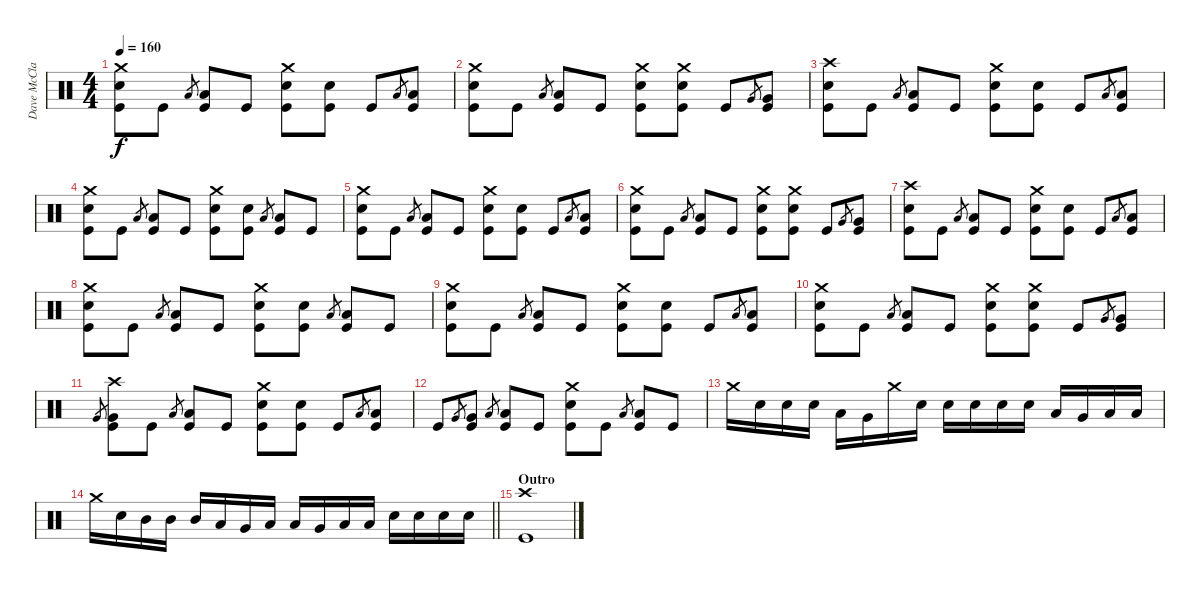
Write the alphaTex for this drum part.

\track ("Dave McClain" "Dave McCla") {instrument percussion}
\staff {score}
\articulation defaults
\ts (4 4)
\tempo 160
\clef neutral
\ks c
("Crash medium (hit)" "Electric Snare (hit)" "Kick (hit)").8{dy f} "Kick (hit)".8 "Low Floor Tom (hit)".8{gr} ("Low Floor Tom (hit)" "Kick (hit)").8 "Kick (hit)".8 ("Crash medium (hit)" "Electric Snare (hit)" "Kick (hit)").8 ("Electric Snare (hit)" "Kick (hit)").8 "Kick (hit)".8 "Low Tom (hit)".8{gr} ("Low Tom (hit)" "Kick (hit)").8 |
("Crash medium (hit)" "Electric Snare (hit)" "Kick (hit)").8 "Kick (hit)".8 "Low Floor Tom (hit)".8{gr} ("Low Floor Tom (hit)" "Kick (hit)").8 "Kick (hit)".8 ("Crash medium (hit)" "Electric Snare (hit)" "Kick (hit)").8 ("Crash medium (hit)" "Electric Snare (hit)" "Kick (hit)").8 "Kick (hit)".8 "Very Low Tom (hit)".8{gr} ("Very Low Tom (hit)" "Kick (hit)").8 |
("Crash high (hit)" "Electric Snare (hit)" "Kick (hit)").8 "Kick (hit)".8 "Low Floor Tom (hit)".8{gr} ("Low Floor Tom (hit)" "Kick (hit)").8 "Kick (hit)".8 ("Crash medium (hit)" "Electric Snare (hit)" "Kick (hit)").8 ("Electric Snare (hit)" "Kick (hit)").8 "Kick (hit)".8 "Low Tom (hit)".8{gr} ("Low Tom (hit)" "Kick (hit)").8 |
("Crash medium (hit)" "Electric Snare (hit)" "Kick (hit)").8 "Kick (hit)".8 "Low Floor Tom (hit)".8{gr} ("Low Floor Tom (hit)" "Kick (hit)").8 "Kick (hit)".8 ("Crash medium (hit)" "Electric Snare (hit)" "Kick (hit)").8 ("Electric Snare (hit)" "Kick (hit)").8 "Low Floor Tom (hit)".8{gr} ("Low Floor Tom (hit)" "Kick (hit)").8 "Kick (hit)".8 |
("Crash medium (hit)" "Electric Snare (hit)" "Kick (hit)").8 "Kick (hit)".8 "Low Floor Tom (hit)".8{gr} ("Low Floor Tom (hit)" "Kick (hit)").8 "Kick (hit)".8 ("Crash medium (hit)" "Electric Snare (hit)" "Kick (hit)").8 ("Electric Snare (hit)" "Kick (hit)").8 "Kick (hit)".8 "Low Tom (hit)".8{gr} ("Low Tom (hit)" "Kick (hit)").8 |
("Crash medium (hit)" "Electric Snare (hit)" "Kick (hit)").8 "Kick (hit)".8 "Low Floor Tom (hit)".8{gr} ("Low Floor Tom (hit)" "Kick (hit)").8 "Kick (hit)".8 ("Crash medium (hit)" "Electric Snare (hit)" "Kick (hit)").8 ("Crash medium (hit)" "Electric Snare (hit)" "Kick (hit)").8 "Kick (hit)".8 "Very Low Tom (hit)".8{gr} ("Very Low Tom (hit)" "Kick (hit)").8 |
("Crash high (hit)" "Electric Snare (hit)" "Kick (hit)").8 "Kick (hit)".8 "Low Floor Tom (hit)".8{gr} ("Low Floor Tom (hit)" "Kick (hit)").8 "Kick (hit)".8 ("Crash medium (hit)" "Electric Snare (hit)" "Kick (hit)").8 ("Electric Snare (hit)" "Kick (hit)").8 "Kick (hit)".8 "Low Tom (hit)".8{gr} ("Low Tom (hit)" "Kick (hit)").8 |
("Crash medium (hit)" "Electric Snare (hit)" "Kick (hit)").8 "Kick (hit)".8 "Low Floor Tom (hit)".8{gr} ("Low Floor Tom (hit)" "Kick (hit)").8 "Kick (hit)".8 ("Crash medium (hit)" "Electric Snare (hit)" "Kick (hit)").8 ("Electric Snare (hit)" "Kick (hit)").8 "Low Floor Tom (hit)".8{gr} ("Low Floor Tom (hit)" "Kick (hit)").8 "Kick (hit)".8 |
("Crash medium (hit)" "Electric Snare (hit)" "Kick (hit)").8 "Kick (hit)".8 "Low Floor Tom (hit)".8{gr} ("Low Floor Tom (hit)" "Kick (hit)").8 "Kick (hit)".8 ("Crash medium (hit)" "Electric Snare (hit)" "Kick (hit)").8 ("Electric Snare (hit)" "Kick (hit)").8 "Kick (hit)".8 "Low Tom (hit)".8{gr} ("Low Tom (hit)" "Kick (hit)").8 |
("Crash medium (hit)" "Electric Snare (hit)" "Kick (hit)").8 "Kick (hit)".8 "Low Floor Tom (hit)".8{gr} ("Low Floor Tom (hit)" "Kick (hit)").8 "Kick (hit)".8 ("Crash medium (hit)" "Electric Snare (hit)" "Kick (hit)").8 ("Crash medium (hit)" "Electric Snare (hit)" "Kick (hit)").8 "Kick (hit)".8 "Very Low Tom (hit)".8{gr} ("Very Low Tom (hit)" "Kick (hit)").8 |
"Very Low Tom (hit)".8{gr} ("Crash high (hit)" "Very Low Tom (hit)" "Kick (hit)").8 "Kick (hit)".8 "Low Floor Tom (hit)".8{gr} ("Low Floor Tom (hit)" "Kick (hit)").8 "Kick (hit)".8 ("Crash medium (hit)" "Electric Snare (hit)" "Kick (hit)").8 ("Electric Snare (hit)" "Kick (hit)").8 "Kick (hit)".8 "Low Tom (hit)".8{gr} ("Low Tom (hit)" "Kick (hit)").8 |
"Kick (hit)".8 "Very Low Tom (hit)".8{gr} ("Very Low Tom (hit)" "Kick (hit)").8 "Low Floor Tom (hit)".8{gr} ("Low Floor Tom (hit)" "Kick (hit)").8 "Kick (hit)".8 ("Crash medium (hit)" "Electric Snare (hit)" "Kick (hit)").8 "Kick (hit)".8 "Low Floor Tom (hit)".8{gr} ("Low Floor Tom (hit)" "Kick (hit)").8 "Kick (hit)".8 |
"Crash medium (hit)".16 "Electric Snare (hit)".16 "Electric Snare (hit)".16 "Electric Snare (hit)".16 "Low Tom (hit)".16 "Very Low Tom (hit)".16 "Crash medium (hit)".16 "Electric Snare (hit)".16 "Electric Snare (hit)".16 "Electric Snare (hit)".16 "Electric Snare (hit)".16 "Electric Snare (hit)".16 "Low Tom (hit)".16 "Very Low Tom (hit)".16 "Low Floor Tom (hit)".16 "Low Floor Tom (hit)".16 |
\barLineRight lightlight "Crash medium (hit)".16 "Electric Snare (hit)".16 "Mid Tom (hit)".16 "Mid Tom (hit)".16 "Mid Tom (hit)".16 "Low Tom (hit)".16 "Very Low Tom (hit)".16 "Low Floor Tom (hit)".16 "Low Tom (hit)".16 "Very Low Tom (hit)".16 "Low Floor Tom (hit)".16 "Low Floor Tom (hit)".16 "Electric Snare (hit)".16 "Electric Snare (hit)".16 "Electric Snare (hit)".16 "Electric Snare (hit)".16
|
\section ("" "Outro")
("Crash high (hit)" "Kick (hit)").1
